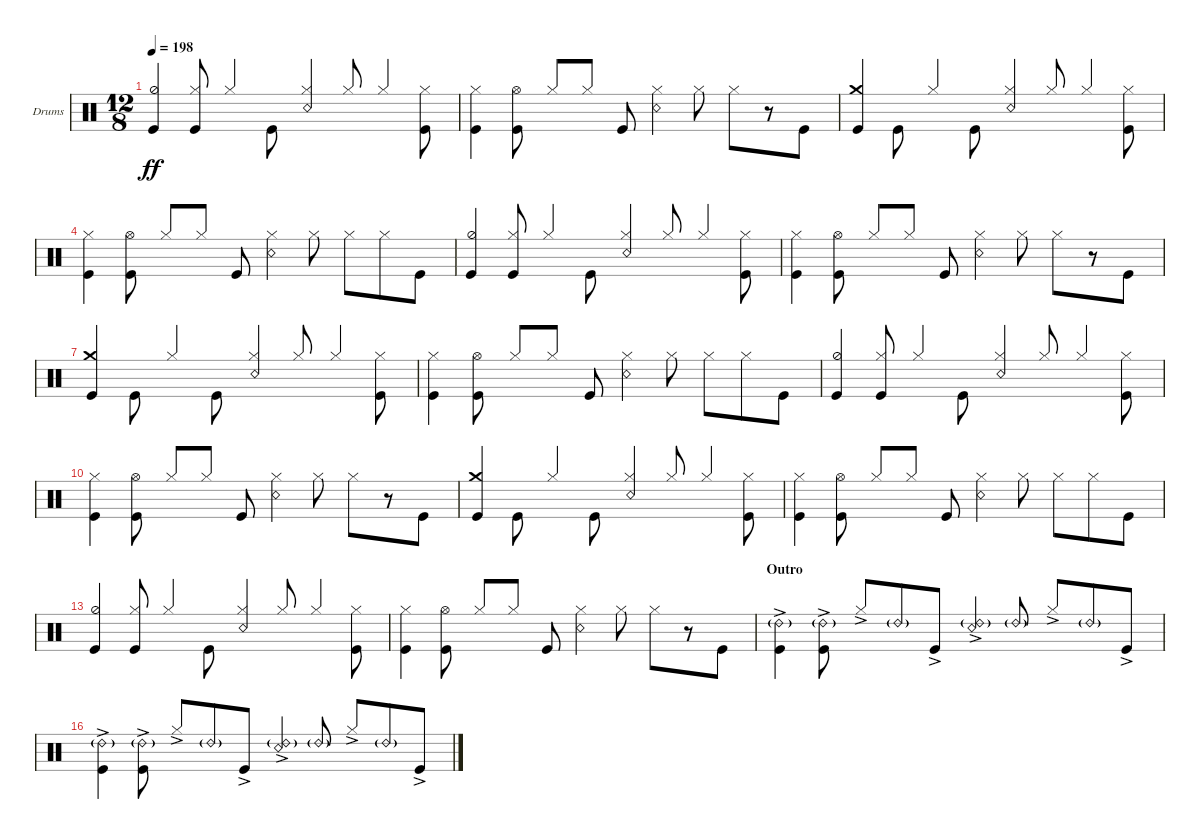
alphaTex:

\bracketExtendMode nobrackets
\firstSystemTrackNameOrientation horizontal
\otherSystemsTrackNameOrientation horizontal
\defaultBarNumberDisplay FirstOfSystem
\track ("Drumkit" "Drums") {instrument percussion}
\staff {score}
\articulation defaults
\ts (12 8)
\tempo 198
\clef neutral
\ks c
("Kick (hit)" "Hi-Hat (half)").4{dy ff beam invert} ("Kick (hit)" "Hi-Hat (closed)").8{beam invert} "Hi-Hat (closed)".4 "Kick (hit)".8{beam invert} ("Snare (rim shot)" "Hi-Hat (closed)").4 "Hi-Hat (closed)".8{beam invert} "Hi-Hat (closed)".4{beam invert} ("Kick (hit)" "Hi-Hat (closed)").8 |
("Kick (hit)" "Hi-Hat (closed)").4 ("Kick (hit)" "Hi-Hat (open)").8{beam split} "Hi-Hat (closed)".8 "Hi-Hat (closed)".8{beam invert beam split} "Kick (hit)".8 ("Snare (rim shot)" "Hi-Hat (closed)").4 "Hi-Hat (closed)".8{beam split} "Hi-Hat (closed)".8 r.8 "Kick (hit)".8 |
("Kick (hit)" "Crash medium (hit)").4{beam invert} "Kick (hit)".8{beam invert} "Hi-Hat (closed)".4 "Kick (hit)".8{beam invert} ("Snare (rim shot)" "Hi-Hat (closed)").4 "Hi-Hat (closed)".8{beam invert} "Hi-Hat (closed)".4{beam invert} ("Kick (hit)" "Hi-Hat (closed)").8 |
("Kick (hit)" "Hi-Hat (closed)").4 ("Kick (hit)" "Hi-Hat (open)").8{beam split} "Hi-Hat (closed)".8 "Hi-Hat (closed)".8{beam invert beam split} "Kick (hit)".8 ("Snare (rim shot)" "Hi-Hat (closed)").4 "Hi-Hat (closed)".8{beam split} "Hi-Hat (closed)".8 "Hi-Hat (closed)".8 "Kick (hit)".8 |
("Kick (hit)" "Hi-Hat (half)").4{beam invert} ("Kick (hit)" "Hi-Hat (closed)").8{beam invert} "Hi-Hat (closed)".4 "Kick (hit)".8{beam invert} ("Snare (rim shot)" "Hi-Hat (closed)").4 "Hi-Hat (closed)".8{beam invert} "Hi-Hat (closed)".4{beam invert} ("Kick (hit)" "Hi-Hat (closed)").8 |
("Kick (hit)" "Hi-Hat (closed)").4 ("Kick (hit)" "Hi-Hat (open)").8{beam split} "Hi-Hat (closed)".8 "Hi-Hat (closed)".8{beam invert beam split} "Kick (hit)".8 ("Snare (rim shot)" "Hi-Hat (closed)").4 "Hi-Hat (closed)".8{beam split} "Hi-Hat (closed)".8 r.8 "Kick (hit)".8 |
("Kick (hit)" "Crash medium (hit)").4{beam invert} "Kick (hit)".8{beam invert} "Hi-Hat (closed)".4 "Kick (hit)".8{beam invert} ("Snare (rim shot)" "Hi-Hat (closed)").4 "Hi-Hat (closed)".8{beam invert} "Hi-Hat (closed)".4{beam invert} ("Kick (hit)" "Hi-Hat (closed)").8 |
("Kick (hit)" "Hi-Hat (closed)").4 ("Kick (hit)" "Hi-Hat (open)").8{beam split} "Hi-Hat (closed)".8 "Hi-Hat (closed)".8{beam invert beam split} "Kick (hit)".8 ("Snare (rim shot)" "Hi-Hat (closed)").4 "Hi-Hat (closed)".8{beam split} "Hi-Hat (closed)".8 "Hi-Hat (closed)".8 "Kick (hit)".8 |
("Kick (hit)" "Hi-Hat (half)").4{beam invert} ("Kick (hit)" "Hi-Hat (closed)").8{beam invert} "Hi-Hat (closed)".4 "Kick (hit)".8{beam invert} ("Snare (rim shot)" "Hi-Hat (closed)").4 "Hi-Hat (closed)".8{beam invert} "Hi-Hat (closed)".4{beam invert} ("Kick (hit)" "Hi-Hat (closed)").8 |
("Kick (hit)" "Hi-Hat (closed)").4 ("Kick (hit)" "Hi-Hat (open)").8{beam split} "Hi-Hat (closed)".8 "Hi-Hat (closed)".8{beam invert beam split} "Kick (hit)".8 ("Snare (rim shot)" "Hi-Hat (closed)").4 "Hi-Hat (closed)".8{beam split} "Hi-Hat (closed)".8 r.8 "Kick (hit)".8 |
("Kick (hit)" "Crash medium (hit)").4{beam invert} "Kick (hit)".8{beam invert} "Hi-Hat (closed)".4 "Kick (hit)".8{beam invert} ("Snare (rim shot)" "Hi-Hat (closed)").4 "Hi-Hat (closed)".8{beam invert} "Hi-Hat (closed)".4{beam invert} ("Kick (hit)" "Hi-Hat (closed)").8 |
("Kick (hit)" "Hi-Hat (closed)").4 ("Kick (hit)" "Hi-Hat (open)").8{beam split} "Hi-Hat (closed)".8 "Hi-Hat (closed)".8{beam invert beam split} "Kick (hit)".8 ("Snare (rim shot)" "Hi-Hat (closed)").4 "Hi-Hat (closed)".8{beam split} "Hi-Hat (closed)".8 "Hi-Hat (closed)".8 "Kick (hit)".8 |
("Kick (hit)" "Hi-Hat (half)").4{beam invert} ("Kick (hit)" "Hi-Hat (closed)").8{beam invert} "Hi-Hat (closed)".4 "Kick (hit)".8{beam invert} ("Snare (rim shot)" "Hi-Hat (closed)").4 "Hi-Hat (closed)".8{beam invert} "Hi-Hat (closed)".4{beam invert} ("Kick (hit)" "Hi-Hat (closed)").8 |
("Kick (hit)" "Hi-Hat (closed)").4 ("Kick (hit)" "Hi-Hat (open)").8{beam split} "Hi-Hat (closed)".8 "Hi-Hat (closed)".8{beam invert beam split} "Kick (hit)".8 ("Snare (rim shot)" "Hi-Hat (closed)").4 "Hi-Hat (closed)".8{beam split} "Hi-Hat (closed)".8 r.8 "Kick (hit)".8 |
\section ("" "Outro")
("Kick (hit)"{ac} "Ride (bell) 2"{g}).4{beam invert} ("Kick (hit)"{ac} "Ride (bell) 2"{g}).8{beam invert} "Hi-Hat (closed)"{ac}.8 "Ride (bell) 2"{g}.8 "Kick (hit)"{ac}.8{beam invert} ("Snare (rim shot)"{ac} "Ride (bell) 2"{g}).4 "Ride (bell) 2"{g}.8{beam invert} "Hi-Hat (closed)"{ac}.8{beam invert} "Ride (bell) 2"{g}.8 "Kick (hit)"{ac}.8 |
("Kick (hit)"{ac} "Ride (bell) 2"{g}).4{beam invert} ("Kick (hit)"{ac} "Ride (bell) 2"{g}).8{beam invert} "Hi-Hat (closed)"{ac}.8 "Ride (bell) 2"{g}.8 "Kick (hit)"{ac}.8{beam invert} ("Snare (rim shot)"{ac} "Ride (bell) 2"{g}).4 "Ride (bell) 2"{g}.8{beam invert} "Hi-Hat (closed)"{ac}.8{beam invert} "Ride (bell) 2"{g}.8 "Kick (hit)"{ac}.8
